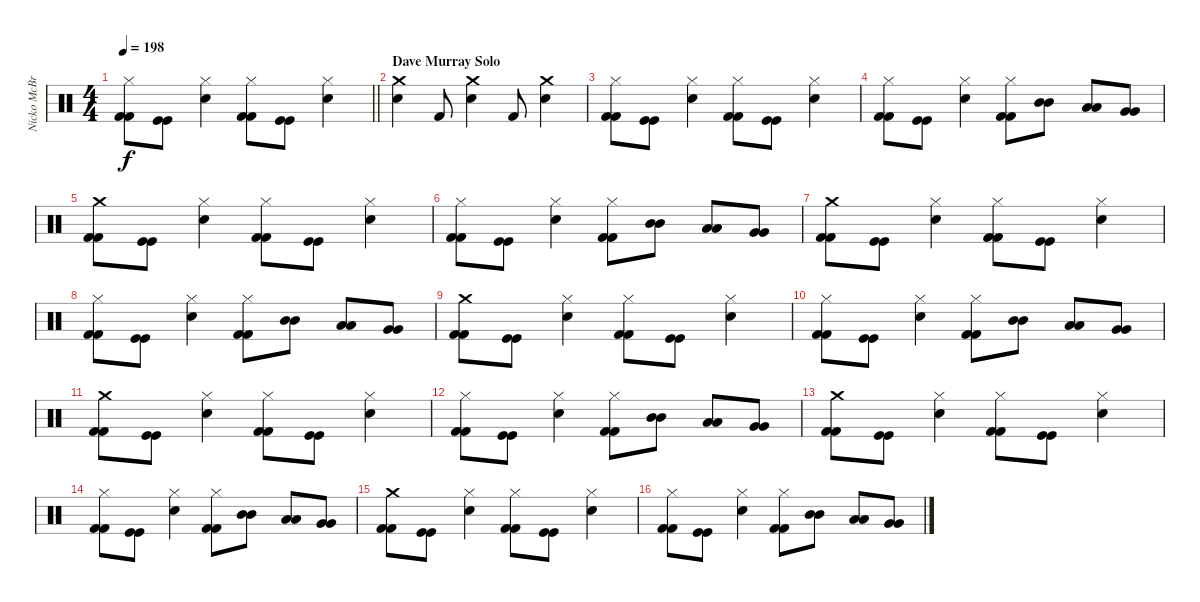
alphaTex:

\track ("Nicko McBrain" "Nicko McBr") {instrument percussion}
\staff {score}
\articulation defaults
\ts (4 4)
\tempo 198
\clef neutral
\barLineRight lightlight
\ks c
("Hi-Hat (closed)" "Kick (hit) 2" "Kick (hit) 2").8{dy f} ("Kick (hit)" "Kick (hit)").8 ("Hi-Hat (closed)" "Electric Snare (hit)").4 ("Hi-Hat (closed)" "Kick (hit) 2" "Kick (hit) 2").8 ("Kick (hit)" "Kick (hit)").8 ("Hi-Hat (closed)" "Electric Snare (hit)").4 |
\section ("" "Dave Murray Solo")
("Crash medium (hit)" "Electric Snare (hit)").4 "Kick (hit) 2".8 ("Crash medium (hit)" "Electric Snare (hit)").4 "Kick (hit) 2".8 ("Crash medium (hit)" "Electric Snare (hit)").4 |
("Hi-Hat (closed)" "Kick (hit) 2" "Kick (hit) 2").8 ("Kick (hit)" "Kick (hit)").8 ("Hi-Hat (closed)" "Electric Snare (hit)").4 ("Hi-Hat (closed)" "Kick (hit) 2" "Kick (hit) 2").8 ("Kick (hit)" "Kick (hit)").8 ("Hi-Hat (closed)" "Electric Snare (hit)").4 |
("Hi-Hat (closed)" "Kick (hit) 2" "Kick (hit) 2").8 ("Kick (hit)" "Kick (hit)").8 ("Hi-Hat (closed)" "Electric Snare (hit)").4 ("Hi-Hat (closed)" "Kick (hit) 2" "Kick (hit) 2").8 ("Mid Tom (hit)" "Mid Tom (hit)").8 ("Low Tom (hit)" "Low Tom (hit)").8 ("Very Low Tom (hit)" "Very Low Tom (hit)").8 |
("Crash medium (hit)" "Kick (hit) 2" "Kick (hit) 2").8 ("Kick (hit)" "Kick (hit)").8 ("Hi-Hat (closed)" "Electric Snare (hit)").4 ("Hi-Hat (closed)" "Kick (hit) 2" "Kick (hit) 2").8 ("Kick (hit)" "Kick (hit)").8 ("Hi-Hat (closed)" "Electric Snare (hit)").4 |
("Hi-Hat (closed)" "Kick (hit) 2" "Kick (hit) 2").8 ("Kick (hit)" "Kick (hit)").8 ("Hi-Hat (closed)" "Electric Snare (hit)").4 ("Hi-Hat (closed)" "Kick (hit) 2" "Kick (hit) 2").8 ("Mid Tom (hit)" "Mid Tom (hit)").8 ("Low Tom (hit)" "Low Tom (hit)").8 ("Very Low Tom (hit)" "Very Low Tom (hit)").8 |
("Crash medium (hit)" "Kick (hit) 2" "Kick (hit) 2").8 ("Kick (hit)" "Kick (hit)").8 ("Hi-Hat (closed)" "Electric Snare (hit)").4 ("Hi-Hat (closed)" "Kick (hit) 2" "Kick (hit) 2").8 ("Kick (hit)" "Kick (hit)").8 ("Hi-Hat (closed)" "Electric Snare (hit)").4 |
("Hi-Hat (closed)" "Kick (hit) 2" "Kick (hit) 2").8 ("Kick (hit)" "Kick (hit)").8 ("Hi-Hat (closed)" "Electric Snare (hit)").4 ("Hi-Hat (closed)" "Kick (hit) 2" "Kick (hit) 2").8 ("Mid Tom (hit)" "Mid Tom (hit)").8 ("Low Tom (hit)" "Low Tom (hit)").8 ("Very Low Tom (hit)" "Very Low Tom (hit)").8 |
("Crash medium (hit)" "Kick (hit) 2" "Kick (hit) 2").8 ("Kick (hit)" "Kick (hit)").8 ("Hi-Hat (closed)" "Electric Snare (hit)").4 ("Hi-Hat (closed)" "Kick (hit) 2" "Kick (hit) 2").8 ("Kick (hit)" "Kick (hit)").8 ("Hi-Hat (closed)" "Electric Snare (hit)").4 |
("Hi-Hat (closed)" "Kick (hit) 2" "Kick (hit) 2").8 ("Kick (hit)" "Kick (hit)").8 ("Hi-Hat (closed)" "Electric Snare (hit)").4 ("Hi-Hat (closed)" "Kick (hit) 2" "Kick (hit) 2").8 ("Mid Tom (hit)" "Mid Tom (hit)").8 ("Low Tom (hit)" "Low Tom (hit)").8 ("Very Low Tom (hit)" "Very Low Tom (hit)").8 |
("Crash medium (hit)" "Kick (hit) 2" "Kick (hit) 2").8 ("Kick (hit)" "Kick (hit)").8 ("Hi-Hat (closed)" "Electric Snare (hit)").4 ("Hi-Hat (closed)" "Kick (hit) 2" "Kick (hit) 2").8 ("Kick (hit)" "Kick (hit)").8 ("Hi-Hat (closed)" "Electric Snare (hit)").4 |
("Hi-Hat (closed)" "Kick (hit) 2" "Kick (hit) 2").8 ("Kick (hit)" "Kick (hit)").8 ("Hi-Hat (closed)" "Electric Snare (hit)").4 ("Hi-Hat (closed)" "Kick (hit) 2" "Kick (hit) 2").8 ("Mid Tom (hit)" "Mid Tom (hit)").8 ("Low Tom (hit)" "Low Tom (hit)").8 ("Very Low Tom (hit)" "Very Low Tom (hit)").8 |
("Crash medium (hit)" "Kick (hit) 2" "Kick (hit) 2").8 ("Kick (hit)" "Kick (hit)").8 ("Hi-Hat (closed)" "Electric Snare (hit)").4 ("Hi-Hat (closed)" "Kick (hit) 2" "Kick (hit) 2").8 ("Kick (hit)" "Kick (hit)").8 ("Hi-Hat (closed)" "Electric Snare (hit)").4 |
("Hi-Hat (closed)" "Kick (hit) 2" "Kick (hit) 2").8 ("Kick (hit)" "Kick (hit)").8 ("Hi-Hat (closed)" "Electric Snare (hit)").4 ("Hi-Hat (closed)" "Kick (hit) 2" "Kick (hit) 2").8 ("Mid Tom (hit)" "Mid Tom (hit)").8 ("Low Tom (hit)" "Low Tom (hit)").8 ("Very Low Tom (hit)" "Very Low Tom (hit)").8 |
("Crash medium (hit)" "Kick (hit) 2" "Kick (hit) 2").8 ("Kick (hit)" "Kick (hit)").8 ("Hi-Hat (closed)" "Electric Snare (hit)").4 ("Hi-Hat (closed)" "Kick (hit) 2" "Kick (hit) 2").8 ("Kick (hit)" "Kick (hit)").8 ("Hi-Hat (closed)" "Electric Snare (hit)").4 |
("Hi-Hat (closed)" "Kick (hit) 2" "Kick (hit) 2").8 ("Kick (hit)" "Kick (hit)").8 ("Hi-Hat (closed)" "Electric Snare (hit)").4 ("Hi-Hat (closed)" "Kick (hit) 2" "Kick (hit) 2").8 ("Mid Tom (hit)" "Mid Tom (hit)").8 ("Low Tom (hit)" "Low Tom (hit)").8 ("Very Low Tom (hit)" "Very Low Tom (hit)").8
